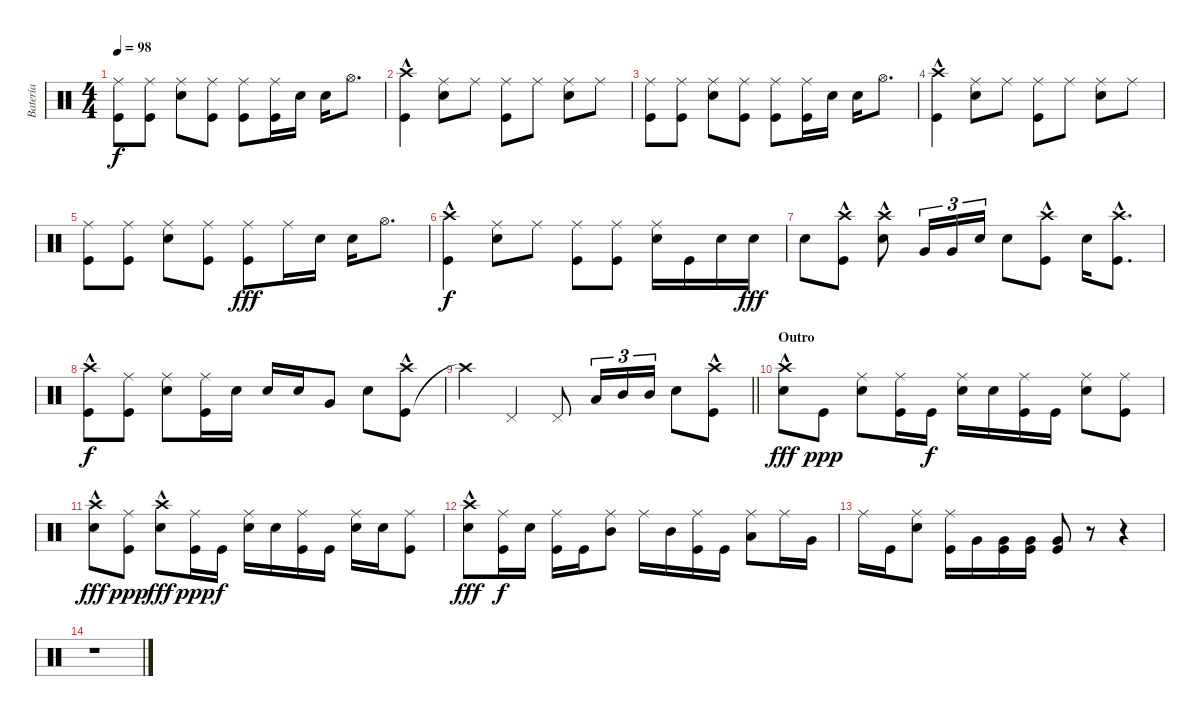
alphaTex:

\track ("Batería" "Batería") {instrument percussion}
\staff {score}
\articulation defaults
\ts (4 4)
\tempo 98
\clef neutral
\ks aminor
("Ride (middle)" "Kick (hit)").8{dy f} ("Ride (middle)" "Kick (hit)").8 ("Ride (middle)" "Snare (hit) 2").8 ("Ride (middle)" "Kick (hit)").8 ("Ride (middle)" "Kick (hit)").8 ("Ride (middle)" "Kick (hit)").16 "Snare (hit) 2".16 "Snare (hit) 2".16 "Hi-Hat (open)".8{d} |
("Kick (hit)" "Crash high (hit)"{hac}).4 ("Ride (middle)" "Snare (hit) 2").8 "Ride (middle)".8 ("Ride (middle)" "Kick (hit)").8 "Ride (middle)".8 ("Ride (middle)" "Snare (hit) 2").8 "Ride (middle)".8 |
("Ride (middle)" "Kick (hit)").8 ("Ride (middle)" "Kick (hit)").8 ("Ride (middle)" "Snare (hit) 2").8 ("Ride (middle)" "Kick (hit)").8 ("Ride (middle)" "Kick (hit)").8 ("Ride (middle)" "Kick (hit)").16 "Snare (hit) 2".16 "Snare (hit) 2".16 "Hi-Hat (open)".8{d} |
("Kick (hit)" "Crash high (hit)"{hac}).4 ("Ride (middle)" "Snare (hit) 2").8 "Ride (middle)".8 ("Ride (middle)" "Kick (hit)").8 "Ride (middle)".8 ("Ride (middle)" "Snare (hit) 2").8 "Ride (middle)".8 |
("Ride (middle)" "Kick (hit)").8 ("Ride (middle)" "Kick (hit)").8 ("Ride (middle)" "Snare (hit) 2").8 ("Ride (middle)" "Kick (hit)").8 ("Ride (middle)" "Kick (hit)").8{dy fff} "Ride (middle)".16 "Snare (hit) 2".16 "Snare (hit) 2".16 "Hi-Hat (open)".8{d} |
("Kick (hit)" "Crash high (hit)"{hac}).4{dy f} ("Ride (middle)" "Snare (hit) 2").8 "Ride (middle)".8 ("Ride (middle)" "Kick (hit)").8 ("Ride (middle)" "Kick (hit)").8 ("Ride (middle)" "Snare (hit) 2").16 "Kick (hit)".16 "Snare (hit) 2".16 "Snare (hit) 2".16{dy fff} |
"Snare (hit) 2".8 ("Kick (hit)" "Crash high (hit)"{hac}).8 ("Snare (hit) 2" "Crash high (hit)"{hac}).8 "Very Low Tom (hit)".16{tu (3 2)} "Very Low Tom (hit)".16{tu (3 2)} "Snare (hit) 2".16{tu (3 2)} "Snare (hit) 2".8 ("Kick (hit)" "Crash high (hit)"{hac}).8 "Snare (hit) 2".16 ("Kick (hit)" "Crash high (hit)"{hac}).8{d} |
("Kick (hit)" "Crash high (hit)"{hac}).8{dy f} ("Kick (hit)" "Ride (middle)").8 ("Snare (hit) 2" "Ride (middle)").8 ("Kick (hit)" "Ride (middle)").16 "Snare (hit) 2".16 "Snare (hit) 2".16 "Snare (hit) 2".16 "Very Low Tom (hit)".8 "Snare (hit) 2".8 ("Kick (hit)" "Crash high (hit)"{hac}).8 |
\barLineRight lightlight "Crash high (hit)"{t}.4 "Pedal Hi-Hat (hit)".4 "Pedal Hi-Hat (hit)".8 "Low Tom (hit)".16{tu (3 2)} "Mid Tom (hit)".16{tu (3 2)} "Mid Tom (hit)".16{tu (3 2)} "Snare (hit) 2".8
("Kick (hit)" "Crash high (hit)"{hac}).8 |
\section ("" "Outro")
("Snare (hit) 2" "Crash high (hit)"{hac}).8{dy fff} "Kick (hit)".8{dy ppp} ("Snare (hit) 2" "Ride (middle)").8 ("Kick (hit)" "Ride (middle)").16 "Kick (hit)".16{dy f} ("Snare (hit) 2" "Ride (middle)").16 "Snare (hit) 2".16 ("Ride (middle)" "Kick (hit)").16 "Kick (hit)".16 ("Snare (hit) 2" "Ride (middle)").8 ("Kick (hit)" "Ride (middle)").8 |
("Snare (hit) 2" "Crash high (hit)"{hac}).8{dy fff} ("Kick (hit)" "Ride (middle)").8{dy ppp} ("Snare (hit) 2" "Crash high (hit)"{hac}).8{dy fff} ("Kick (hit)" "Ride (middle)").16{dy ppp} "Kick (hit)".16{dy f} ("Snare (hit) 2" "Ride (middle)").16 "Snare (hit) 2".16 ("Ride (middle)" "Kick (hit)").16 "Kick (hit)".16 ("Snare (hit) 2" "Ride (middle)").16 "Snare (hit) 2".16 ("Kick (hit)" "Ride (middle)").8 |
("Snare (hit) 2" "Crash high (hit)"{hac}).8{dy fff} ("Kick (hit)" "Ride (middle)").16{dy f} "Snare (hit) 2".16 ("Kick (hit)" "Ride (middle)").16 "Kick (hit)".16 ("Mid Tom (hit)" "Ride (middle)").8 "Ride (middle)".16 "Mid Tom (hit)".16 ("Ride (middle)" "Kick (hit)").16 "Kick (hit)".16 ("Ride (middle)" "Low Tom (hit)").8 "Ride (middle)".16 "Very Low Tom (hit)".16 |
"Ride (middle)".16 "Kick (hit)".16 ("Snare (hit) 2" "Ride (middle)").8 ("Ride (middle)" "Kick (hit)").16 "Very Low Tom (hit)".16 ("Very Low Tom (hit)" "Kick (hit)").16 ("Very Low Tom (hit)" "Kick (hit)").16 ("Kick (hit)" "Very Low Tom (hit)").8 r.8 r.4 |
r.1
